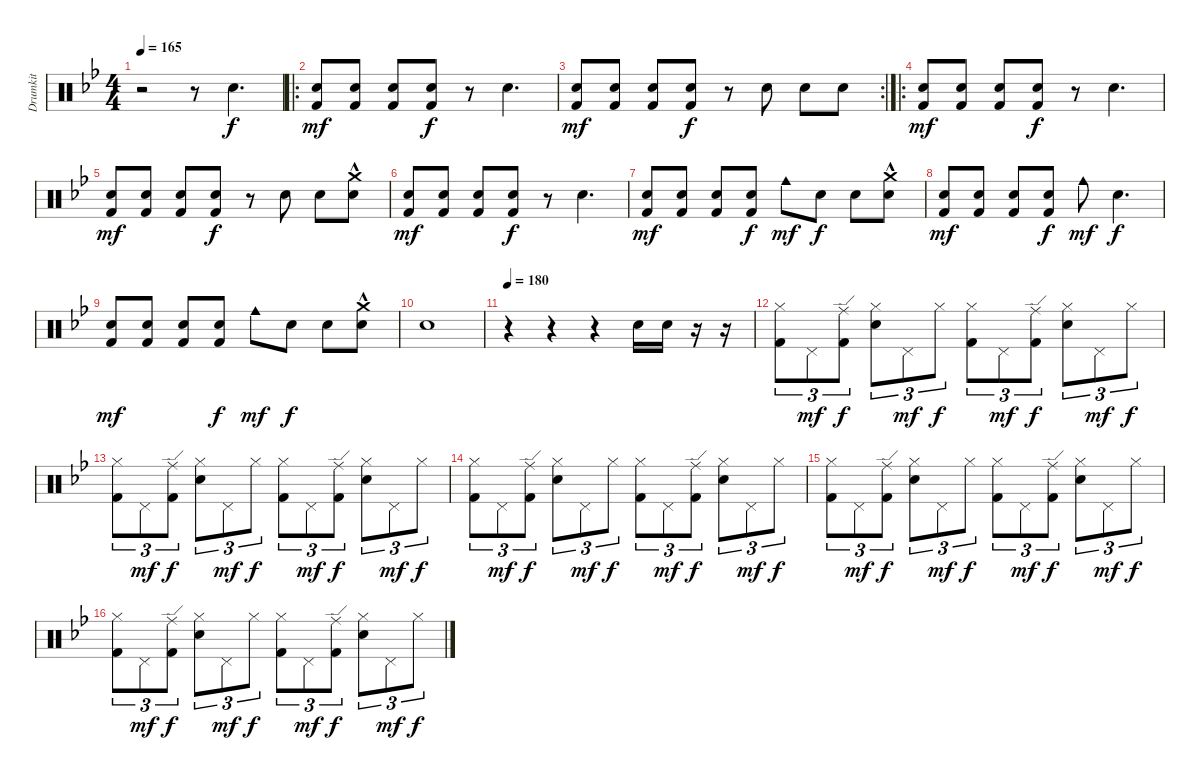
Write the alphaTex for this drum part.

\track ("Drumkit" "Drumkit") {instrument percussion}
\staff {score}
\articulation defaults
\ts (4 4)
\tempo 165
\clef neutral
\ks bb
r.2{dy f} r.8 "Snare (hit) 2".4{d} |
\ro
("Snare (hit) 2" "Kick (hit) 2").8{dy mf} ("Snare (hit) 2" "Kick (hit) 2").8 ("Snare (hit) 2" "Kick (hit) 2").8 ("Snare (hit) 2" "Kick (hit) 2").8{dy f} r.8 "Snare (hit) 2".4{d} |
\rc 2
("Snare (hit) 2" "Kick (hit) 2").8{dy mf} ("Snare (hit) 2" "Kick (hit) 2").8 ("Snare (hit) 2" "Kick (hit) 2").8 ("Snare (hit) 2" "Kick (hit) 2").8{dy f} r.8 "Snare (hit) 2".8 "Snare (hit) 2".8 "Snare (hit) 2".8 |
\ro
("Snare (hit) 2" "Kick (hit) 2").8{dy mf} ("Snare (hit) 2" "Kick (hit) 2").8 ("Snare (hit) 2" "Kick (hit) 2").8 ("Snare (hit) 2" "Kick (hit) 2").8{dy f} r.8 "Snare (hit) 2".4{d} |
("Snare (hit) 2" "Kick (hit) 2").8{dy mf} ("Snare (hit) 2" "Kick (hit) 2").8 ("Snare (hit) 2" "Kick (hit) 2").8 ("Snare (hit) 2" "Kick (hit) 2").8{dy f} r.8 "Snare (hit) 2".8 "Snare (hit) 2".8 ("Snare (hit) 2" "Crash medium (hit)"{hac}).8 |
("Snare (hit) 2" "Kick (hit) 2").8{dy mf} ("Snare (hit) 2" "Kick (hit) 2").8 ("Snare (hit) 2" "Kick (hit) 2").8 ("Snare (hit) 2" "Kick (hit) 2").8{dy f} r.8 "Snare (hit) 2".4{d} |
("Snare (hit) 2" "Kick (hit) 2").8{dy mf} ("Snare (hit) 2" "Kick (hit) 2").8 ("Snare (hit) 2" "Kick (hit) 2").8 ("Snare (hit) 2" "Kick (hit) 2").8{dy f} "Cowbell medium (hit)".8{dy mf} "Snare (hit) 2".8{dy f} "Snare (hit) 2".8 ("Snare (hit) 2" "Crash medium (hit)"{hac}).8 |
("Snare (hit) 2" "Kick (hit) 2").8{dy mf} ("Snare (hit) 2" "Kick (hit) 2").8 ("Snare (hit) 2" "Kick (hit) 2").8 ("Snare (hit) 2" "Kick (hit) 2").8{dy f} "Cowbell medium (hit)".8{dy mf} "Snare (hit) 2".4{d dy f} |
("Snare (hit) 2" "Kick (hit) 2").8{dy mf} ("Snare (hit) 2" "Kick (hit) 2").8 ("Snare (hit) 2" "Kick (hit) 2").8 ("Snare (hit) 2" "Kick (hit) 2").8{dy f} "Cowbell medium (hit)".8{dy mf} "Snare (hit) 2".8{dy f} "Snare (hit) 2".8 ("Snare (hit) 2" "Crash medium (hit)"{hac}).8 |
"Snare (hit) 2".1 |
\tempo 180
r.4 r.4 r.4 "Snare (hit) 2".16 "Snare (hit) 2".16 r.16 r.16 |
("Hi-Hat (closed)" "Kick (hit) 2").8{tu (3 2)} "Pedal Hi-Hat (hit)".8{tu (3 2) dy mf} ("Kick (hit) 2" "Ride (edge)").8{tu (3 2) dy f} ("Hi-Hat (closed)" "Snare (hit) 2").8{tu (3 2)} "Pedal Hi-Hat (hit)".8{tu (3 2) dy mf} "Hi-Hat (closed)".8{tu (3 2) dy f} ("Hi-Hat (closed)" "Kick (hit) 2").8{tu (3 2)} "Pedal Hi-Hat (hit)".8{tu (3 2) dy mf} ("Kick (hit) 2" "Ride (edge)").8{tu (3 2) dy f} ("Hi-Hat (closed)" "Snare (hit) 2").8{tu (3 2)} "Pedal Hi-Hat (hit)".8{tu (3 2) dy mf} "Hi-Hat (closed)".8{tu (3 2) dy f} |
("Hi-Hat (closed)" "Kick (hit) 2").8{tu (3 2)} "Pedal Hi-Hat (hit)".8{tu (3 2) dy mf} ("Kick (hit) 2" "Ride (edge)").8{tu (3 2) dy f} ("Hi-Hat (closed)" "Snare (hit) 2").8{tu (3 2)} "Pedal Hi-Hat (hit)".8{tu (3 2) dy mf} "Hi-Hat (closed)".8{tu (3 2) dy f} ("Hi-Hat (closed)" "Kick (hit) 2").8{tu (3 2)} "Pedal Hi-Hat (hit)".8{tu (3 2) dy mf} ("Kick (hit) 2" "Ride (edge)").8{tu (3 2) dy f} ("Hi-Hat (closed)" "Snare (hit) 2").8{tu (3 2)} "Pedal Hi-Hat (hit)".8{tu (3 2) dy mf} "Hi-Hat (closed)".8{tu (3 2) dy f} |
("Hi-Hat (closed)" "Kick (hit) 2").8{tu (3 2)} "Pedal Hi-Hat (hit)".8{tu (3 2) dy mf} ("Kick (hit) 2" "Ride (edge)").8{tu (3 2) dy f} ("Hi-Hat (closed)" "Snare (hit) 2").8{tu (3 2)} "Pedal Hi-Hat (hit)".8{tu (3 2) dy mf} "Hi-Hat (closed)".8{tu (3 2) dy f} ("Hi-Hat (closed)" "Kick (hit) 2").8{tu (3 2)} "Pedal Hi-Hat (hit)".8{tu (3 2) dy mf} ("Kick (hit) 2" "Ride (edge)").8{tu (3 2) dy f} ("Hi-Hat (closed)" "Snare (hit) 2").8{tu (3 2)} "Pedal Hi-Hat (hit)".8{tu (3 2) dy mf} "Hi-Hat (closed)".8{tu (3 2) dy f} |
("Hi-Hat (closed)" "Kick (hit) 2").8{tu (3 2)} "Pedal Hi-Hat (hit)".8{tu (3 2) dy mf} ("Kick (hit) 2" "Ride (edge)").8{tu (3 2) dy f} ("Hi-Hat (closed)" "Snare (hit) 2").8{tu (3 2)} "Pedal Hi-Hat (hit)".8{tu (3 2) dy mf} "Hi-Hat (closed)".8{tu (3 2) dy f} ("Hi-Hat (closed)" "Kick (hit) 2").8{tu (3 2)} "Pedal Hi-Hat (hit)".8{tu (3 2) dy mf} ("Kick (hit) 2" "Ride (edge)").8{tu (3 2) dy f} ("Hi-Hat (closed)" "Snare (hit) 2").8{tu (3 2)} "Pedal Hi-Hat (hit)".8{tu (3 2) dy mf} "Hi-Hat (closed)".8{tu (3 2) dy f} |
("Hi-Hat (closed)" "Kick (hit) 2").8{tu (3 2)} "Pedal Hi-Hat (hit)".8{tu (3 2) dy mf} ("Kick (hit) 2" "Ride (edge)").8{tu (3 2) dy f} ("Hi-Hat (closed)" "Snare (hit) 2").8{tu (3 2)} "Pedal Hi-Hat (hit)".8{tu (3 2) dy mf} "Hi-Hat (closed)".8{tu (3 2) dy f} ("Hi-Hat (closed)" "Kick (hit) 2").8{tu (3 2)} "Pedal Hi-Hat (hit)".8{tu (3 2) dy mf} ("Kick (hit) 2" "Ride (edge)").8{tu (3 2) dy f} ("Hi-Hat (closed)" "Snare (hit) 2").8{tu (3 2)} "Pedal Hi-Hat (hit)".8{tu (3 2) dy mf} "Hi-Hat (closed)".8{tu (3 2) dy f}
